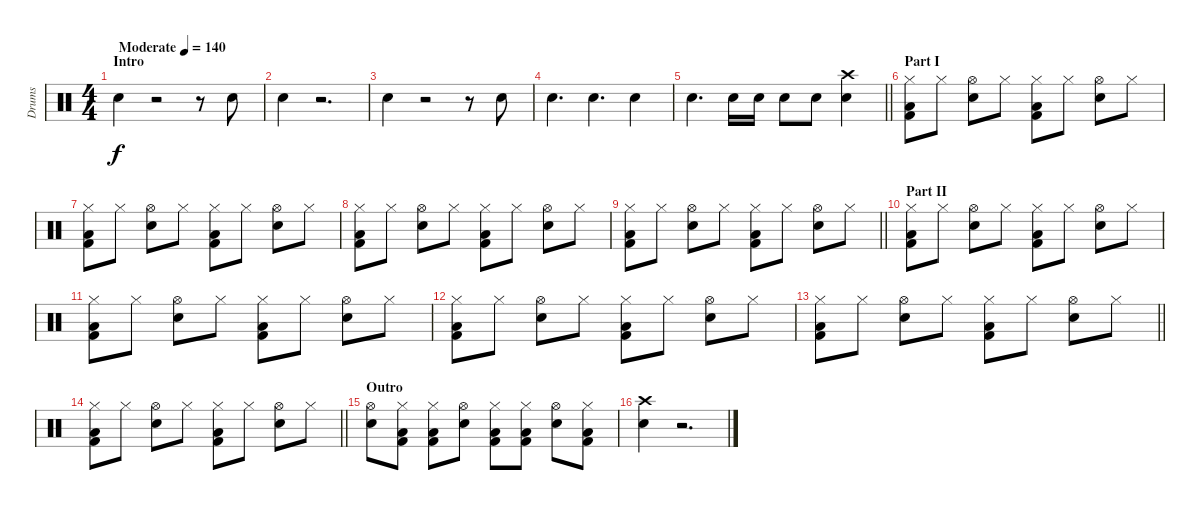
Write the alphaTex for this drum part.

\track ("Drums" "Drums") {instrument percussion}
\staff {score}
\articulation defaults
\ts (4 4)
\section ("" "Intro")
\tempo (140 "Moderate")
\clef neutral
\ks c "Snare (hit) 2".4{dy f}
r.2 r.8 "Snare (hit) 2".8 |
"Snare (hit) 2".4 r.2{d} |
"Snare (hit) 2".4 r.2 r.8 "Snare (hit) 2".8 |
"Snare (hit) 2".4{d} "Snare (hit) 2".4{d} "Snare (hit) 2".4 |
\barLineRight lightlight "Snare (hit) 2".4{d} "Snare (hit) 2".16 "Snare (hit) 2".16 "Snare (hit) 2".8 "Snare (hit) 2".8
("Crash high (hit)" "Snare (hit) 2").4 |
\section ("" "Part I")
("Hi-Hat (closed)" "Low Floor Tom (hit)" "Kick (hit) 2").8 "Hi-Hat (closed)".8 ("Hi-Hat (open)" "Snare (hit) 2").8 "Hi-Hat (closed)".8 ("Hi-Hat (closed)" "Low Floor Tom (hit)" "Kick (hit) 2").8 "Hi-Hat (closed)".8 ("Hi-Hat (open)" "Snare (hit) 2").8 "Hi-Hat (closed)".8 |
("Hi-Hat (closed)" "Low Floor Tom (hit)" "Kick (hit) 2").8 "Hi-Hat (closed)".8 ("Hi-Hat (open)" "Snare (hit) 2").8 "Hi-Hat (closed)".8 ("Hi-Hat (closed)" "Low Floor Tom (hit)" "Kick (hit) 2").8 "Hi-Hat (closed)".8 ("Hi-Hat (open)" "Snare (hit) 2").8 "Hi-Hat (closed)".8 |
("Hi-Hat (closed)" "Low Floor Tom (hit)" "Kick (hit) 2").8 "Hi-Hat (closed)".8 ("Hi-Hat (open)" "Snare (hit) 2").8 "Hi-Hat (closed)".8 ("Hi-Hat (closed)" "Low Floor Tom (hit)" "Kick (hit) 2").8 "Hi-Hat (closed)".8 ("Hi-Hat (open)" "Snare (hit) 2").8 "Hi-Hat (closed)".8 |
\barLineRight lightlight
("Hi-Hat (closed)" "Low Floor Tom (hit)" "Kick (hit) 2").8 "Hi-Hat (closed)".8 ("Hi-Hat (open)" "Snare (hit) 2").8 "Hi-Hat (closed)".8 ("Hi-Hat (closed)" "Low Floor Tom (hit)" "Kick (hit) 2").8 "Hi-Hat (closed)".8 ("Hi-Hat (open)" "Snare (hit) 2").8 "Hi-Hat (closed)".8 |
\section ("" "Part II")
("Hi-Hat (closed)" "Low Floor Tom (hit)" "Kick (hit) 2").8 "Hi-Hat (closed)".8 ("Hi-Hat (open)" "Snare (hit) 2").8 "Hi-Hat (closed)".8 ("Hi-Hat (closed)" "Low Floor Tom (hit)" "Kick (hit) 2").8 "Hi-Hat (closed)".8 ("Hi-Hat (open)" "Snare (hit) 2").8 "Hi-Hat (closed)".8 |
("Hi-Hat (closed)" "Low Floor Tom (hit)" "Kick (hit) 2").8 "Hi-Hat (closed)".8 ("Hi-Hat (open)" "Snare (hit) 2").8 "Hi-Hat (closed)".8 ("Hi-Hat (closed)" "Low Floor Tom (hit)" "Kick (hit) 2").8 "Hi-Hat (closed)".8 ("Hi-Hat (open)" "Snare (hit) 2").8 "Hi-Hat (closed)".8 |
("Hi-Hat (closed)" "Low Floor Tom (hit)" "Kick (hit) 2").8 "Hi-Hat (closed)".8 ("Hi-Hat (open)" "Snare (hit) 2").8 "Hi-Hat (closed)".8 ("Hi-Hat (closed)" "Low Floor Tom (hit)" "Kick (hit) 2").8 "Hi-Hat (closed)".8 ("Hi-Hat (open)" "Snare (hit) 2").8 "Hi-Hat (closed)".8 |
\barLineRight lightlight
("Hi-Hat (closed)" "Low Floor Tom (hit)" "Kick (hit) 2").8 "Hi-Hat (closed)".8 ("Hi-Hat (open)" "Snare (hit) 2").8 "Hi-Hat (closed)".8 ("Hi-Hat (closed)" "Low Floor Tom (hit)" "Kick (hit) 2").8 "Hi-Hat (closed)".8 ("Hi-Hat (open)" "Snare (hit) 2").8 "Hi-Hat (closed)".8 |
\barLineRight lightlight
("Hi-Hat (closed)" "Low Floor Tom (hit)" "Kick (hit) 2").8 "Hi-Hat (closed)".8 ("Hi-Hat (open)" "Snare (hit) 2").8 "Hi-Hat (closed)".8 ("Hi-Hat (closed)" "Low Floor Tom (hit)" "Kick (hit) 2").8 "Hi-Hat (closed)".8 ("Hi-Hat (open)" "Snare (hit) 2").8 "Hi-Hat (closed)".8 |
\section ("" "Outro")
("Hi-Hat (open)" "Snare (hit) 2").8 ("Hi-Hat (closed)" "Low Floor Tom (hit)" "Kick (hit) 2").8 ("Hi-Hat (closed)" "Low Floor Tom (hit)" "Kick (hit) 2").8 ("Hi-Hat (open)" "Snare (hit) 2").8 ("Hi-Hat (closed)" "Low Floor Tom (hit)" "Kick (hit) 2").8 ("Hi-Hat (closed)" "Low Floor Tom (hit)" "Kick (hit) 2").8 ("Hi-Hat (open)" "Snare (hit) 2").8 ("Hi-Hat (closed)" "Low Floor Tom (hit)" "Kick (hit) 2").8 |
("Crash high (hit)" "Snare (hit) 2").4 r.2{d}
